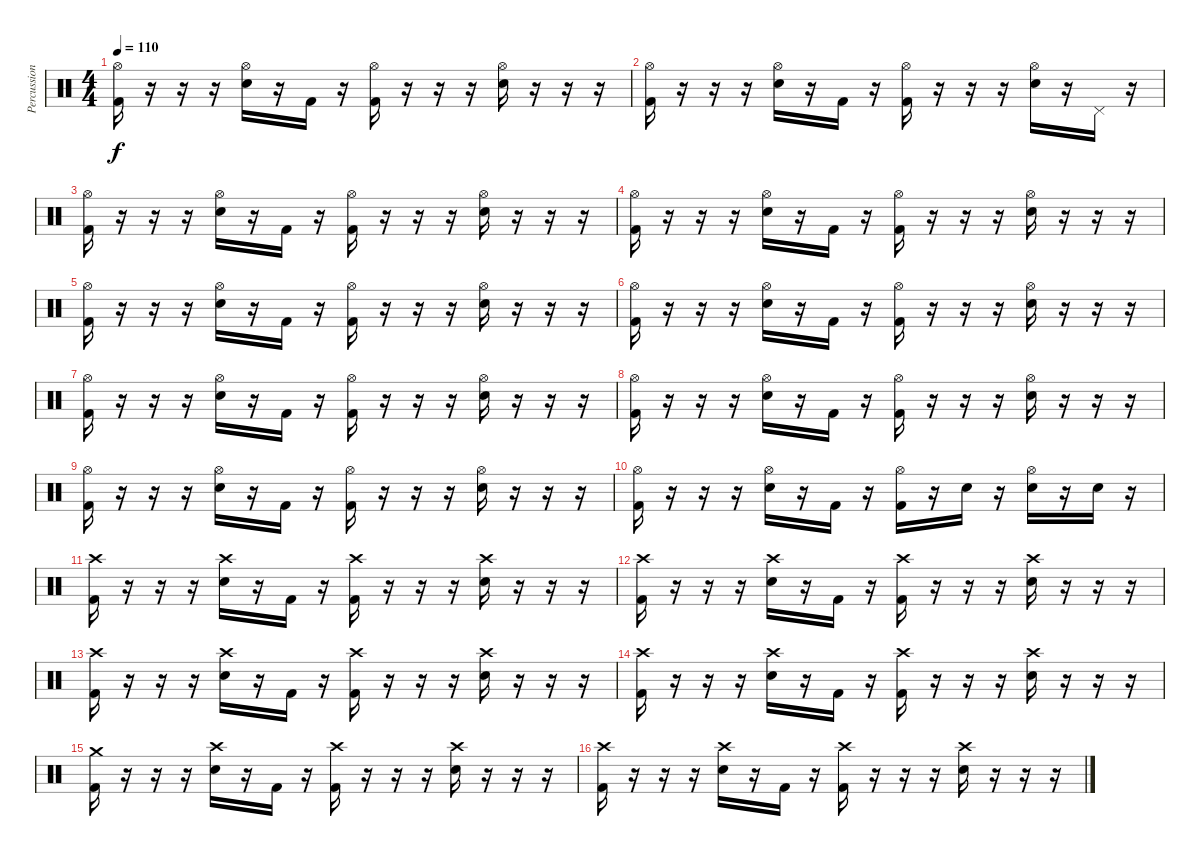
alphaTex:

\track ("Percussions" "Percussion") {instrument percussion}
\staff {score}
\articulation defaults
\ts (4 4)
\tempo 110
\clef neutral
\ks c
("Hi-Hat (open)" "Kick (hit) 2").16{dy f} r.16 r.16 r.16 ("Hi-Hat (open)" "Electric Snare (hit)").16 r.16 "Kick (hit) 2".16 r.16 ("Hi-Hat (open)" "Kick (hit) 2").16 r.16 r.16 r.16 ("Hi-Hat (open)" "Electric Snare (hit)").16 r.16 r.16 r.16 |
("Hi-Hat (open)" "Kick (hit) 2").16 r.16 r.16 r.16 ("Hi-Hat (open)" "Electric Snare (hit)").16 r.16 "Kick (hit) 2".16 r.16 ("Hi-Hat (open)" "Kick (hit) 2").16 r.16 r.16 r.16 ("Hi-Hat (open)" "Electric Snare (hit)").16 r.16 "Pedal Hi-Hat (hit)".16 r.16 |
("Hi-Hat (open)" "Kick (hit) 2").16 r.16 r.16 r.16 ("Hi-Hat (open)" "Electric Snare (hit)").16 r.16 "Kick (hit) 2".16 r.16 ("Hi-Hat (open)" "Kick (hit) 2").16 r.16 r.16 r.16 ("Hi-Hat (open)" "Electric Snare (hit)").16 r.16 r.16 r.16 |
("Hi-Hat (open)" "Kick (hit) 2").16 r.16 r.16 r.16 ("Hi-Hat (open)" "Electric Snare (hit)").16 r.16 "Kick (hit) 2".16 r.16 ("Hi-Hat (open)" "Kick (hit) 2").16 r.16 r.16 r.16 ("Hi-Hat (open)" "Electric Snare (hit)").16 r.16 r.16 r.16 |
("Hi-Hat (open)" "Kick (hit) 2").16 r.16 r.16 r.16 ("Hi-Hat (open)" "Electric Snare (hit)").16 r.16 "Kick (hit) 2".16 r.16 ("Hi-Hat (open)" "Kick (hit) 2").16 r.16 r.16 r.16 ("Hi-Hat (open)" "Electric Snare (hit)").16 r.16 r.16 r.16 |
("Hi-Hat (open)" "Kick (hit) 2").16 r.16 r.16 r.16 ("Hi-Hat (open)" "Electric Snare (hit)").16 r.16 "Kick (hit) 2".16 r.16 ("Hi-Hat (open)" "Kick (hit) 2").16 r.16 r.16 r.16 ("Hi-Hat (open)" "Electric Snare (hit)").16 r.16 r.16 r.16 |
("Hi-Hat (open)" "Kick (hit) 2").16 r.16 r.16 r.16 ("Hi-Hat (open)" "Electric Snare (hit)").16 r.16 "Kick (hit) 2".16 r.16 ("Hi-Hat (open)" "Kick (hit) 2").16 r.16 r.16 r.16 ("Hi-Hat (open)" "Electric Snare (hit)").16 r.16 r.16 r.16 |
("Hi-Hat (open)" "Kick (hit) 2").16 r.16 r.16 r.16 ("Hi-Hat (open)" "Electric Snare (hit)").16 r.16 "Kick (hit) 2".16 r.16 ("Hi-Hat (open)" "Kick (hit) 2").16 r.16 r.16 r.16 ("Hi-Hat (open)" "Electric Snare (hit)").16 r.16 r.16 r.16 |
("Hi-Hat (open)" "Kick (hit) 2").16 r.16 r.16 r.16 ("Hi-Hat (open)" "Electric Snare (hit)").16 r.16 "Kick (hit) 2".16 r.16 ("Hi-Hat (open)" "Kick (hit) 2").16 r.16 r.16 r.16 ("Hi-Hat (open)" "Electric Snare (hit)").16 r.16 r.16 r.16 |
("Hi-Hat (open)" "Kick (hit) 2").16 r.16 r.16 r.16 ("Hi-Hat (open)" "Electric Snare (hit)").16 r.16 "Kick (hit) 2".16 r.16 ("Hi-Hat (open)" "Kick (hit) 2").16 r.16 "Electric Snare (hit)".16 r.16 ("Hi-Hat (open)" "Electric Snare (hit)").16 r.16 "Electric Snare (hit)".16 r.16 |
("Crash high (hit)" "Kick (hit) 2").16 r.16 r.16 r.16 ("Crash high (hit)" "Electric Snare (hit)").16 r.16 "Kick (hit) 2".16 r.16 ("Crash high (hit)" "Kick (hit) 2").16 r.16 r.16 r.16 ("Crash high (hit)" "Electric Snare (hit)").16 r.16 r.16 r.16 |
("Crash high (hit)" "Kick (hit) 2").16 r.16 r.16 r.16 ("Crash high (hit)" "Electric Snare (hit)").16 r.16 "Kick (hit) 2".16 r.16 ("Crash high (hit)" "Kick (hit) 2").16 r.16 r.16 r.16 ("Crash high (hit)" "Electric Snare (hit)").16 r.16 r.16 r.16 |
("Crash high (hit)" "Kick (hit) 2").16 r.16 r.16 r.16 ("Crash high (hit)" "Electric Snare (hit)").16 r.16 "Kick (hit) 2".16 r.16 ("Crash high (hit)" "Kick (hit) 2").16 r.16 r.16 r.16 ("Crash high (hit)" "Electric Snare (hit)").16 r.16 r.16 r.16 |
("Crash high (hit)" "Kick (hit) 2").16 r.16 r.16 r.16 ("Crash high (hit)" "Electric Snare (hit)").16 r.16 "Kick (hit) 2".16 r.16 ("Crash high (hit)" "Kick (hit) 2").16 r.16 r.16 r.16 ("Crash high (hit)" "Electric Snare (hit)").16 r.16 r.16 r.16 |
("Crash medium (hit)" "Kick (hit) 2").16 r.16 r.16 r.16 ("Crash high (hit)" "Electric Snare (hit)").16 r.16 "Kick (hit) 2".16 r.16 ("Crash high (hit)" "Kick (hit) 2").16 r.16 r.16 r.16 ("Crash high (hit)" "Electric Snare (hit)").16 r.16 r.16 r.16 |
("Crash high (hit)" "Kick (hit) 2").16 r.16 r.16 r.16 ("Crash high (hit)" "Electric Snare (hit)").16 r.16 "Kick (hit) 2".16 r.16 ("Crash high (hit)" "Kick (hit) 2").16 r.16 r.16 r.16 ("Crash high (hit)" "Electric Snare (hit)").16 r.16 r.16 r.16
